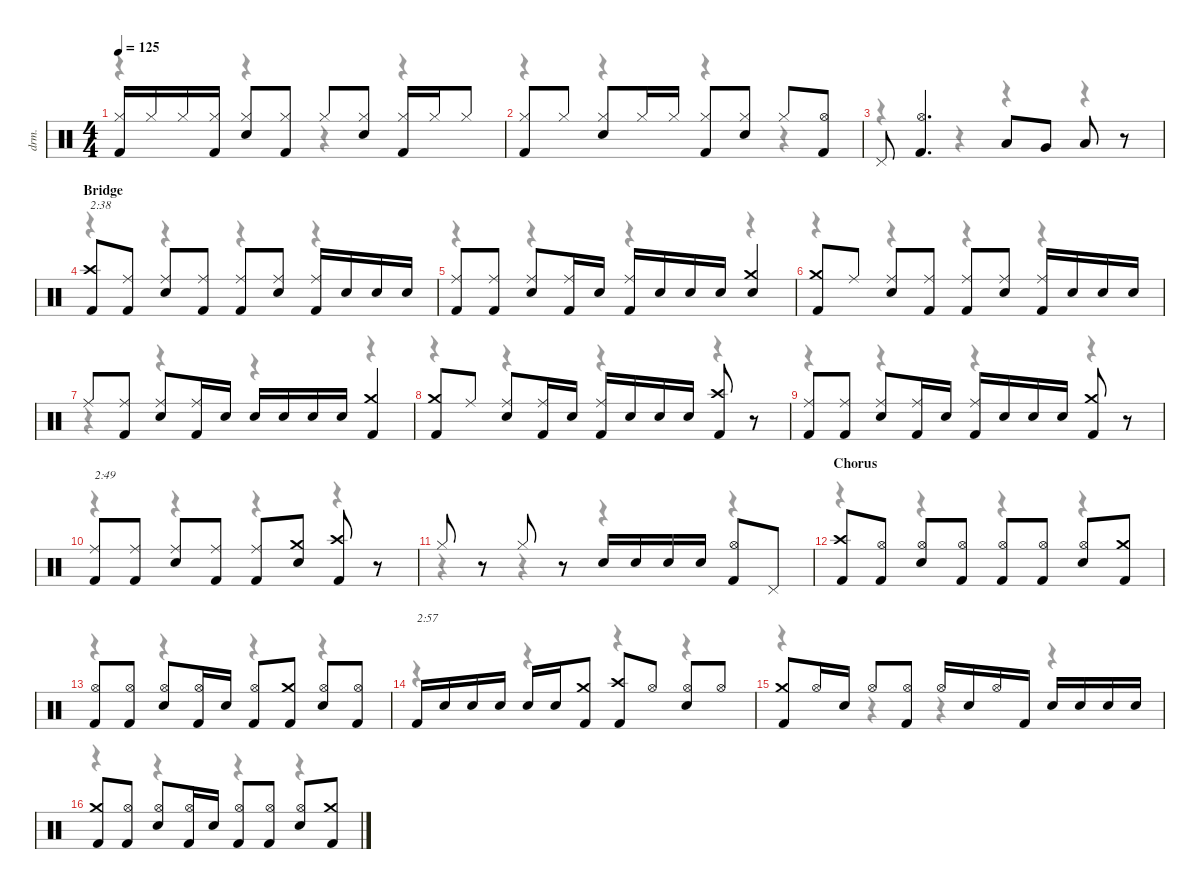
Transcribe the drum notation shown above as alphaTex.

\defaultSystemsLayout 4
\hideDynamics
\bracketExtendMode nobrackets
\otherSystemsTrackNameOrientation horizontal
\track ("Drums" "drm.") {instrument percussion}
\staff {score}
\articulation defaults
\voice
\ts (4 4)
\tempo 125
\clef neutral
\ks c
("Hi-Hat (closed)" "Kick (hit) 2").16{dy f beam Up} "Hi-Hat (closed)".16{beam Up} "Hi-Hat (closed)".16{beam Up} ("Hi-Hat (closed)" "Kick (hit) 2").16{beam Up} ("Hi-Hat (closed)" "Snare (hit) 2").8{beam Up} ("Hi-Hat (closed)" "Kick (hit) 2").8{beam Up} "Hi-Hat (closed)".8{beam Up} ("Hi-Hat (closed)" "Snare (hit) 2").8{beam Up} ("Hi-Hat (closed)" "Kick (hit) 2").16{beam Up} "Hi-Hat (closed)".16{beam Up} "Hi-Hat (closed)".8{beam Up} |
("Hi-Hat (closed)" "Kick (hit) 2").8{beam Up} "Hi-Hat (closed)".8{beam Up} ("Hi-Hat (closed)" "Snare (hit) 2").8{beam Up} "Hi-Hat (closed)".16{beam Up} "Hi-Hat (closed)".16{beam Up} ("Hi-Hat (closed)" "Kick (hit) 2").8{beam Up} ("Hi-Hat (closed)" "Snare (hit) 2").8{beam Up} "Hi-Hat (closed)".8{beam Up} ("Hi-Hat (open)" "Kick (hit) 2").8{beam Up} |
"Pedal Hi-Hat (hit)".8{beam Up} ("Hi-Hat (open)" "Kick (hit) 2").4{d beam Up} "Low Tom (hit)".8{beam Up} "Very Low Tom (hit)".8{beam Up} "Low Floor Tom (hit)".8{beam Up} r.8{beam Up} |
\section ("" "Bridge")
("Crash high (hit)" "Kick (hit) 2").8{txt "2:38" beam Up} ("Ride (middle)" "Kick (hit) 2").8{beam Up} ("Ride (middle)" "Snare (hit) 2").8{beam Up} ("Ride (middle)" "Kick (hit) 2").8{beam Up} ("Ride (middle)" "Kick (hit) 2").8{beam Up} ("Ride (middle)" "Snare (hit) 2").8{beam Up} ("Ride (middle)" "Kick (hit) 2").16{beam Up} "Snare (hit) 2".16{beam Up} "Snare (hit) 2".16{beam Up} "Snare (hit) 2".16{beam Up} |
("Ride (middle)" "Kick (hit) 2").8{beam Up} ("Ride (middle)" "Kick (hit) 2").8{beam Up} ("Ride (middle)" "Snare (hit) 2").8{beam Up} ("Ride (middle)" "Kick (hit) 2").16{beam Up} "Snare (hit) 2".16{beam Up} ("Ride (middle)" "Kick (hit) 2").16{beam Up} "Snare (hit) 2".16{beam Up} "Snare (hit) 2".16{beam Up} "Snare (hit) 2".16{beam Up} ("Crash medium (hit)" "Snare (hit) 2").4{beam Up} |
("Crash medium (hit)" "Kick (hit) 2").8{beam Up} "Ride (middle)".8{beam Up} ("Ride (middle)" "Snare (hit) 2").8{beam Up} ("Ride (middle)" "Kick (hit) 2").8{beam Up} ("Ride (middle)" "Kick (hit) 2").8{beam Up} ("Ride (middle)" "Snare (hit) 2").8{beam Up} ("Ride (middle)" "Kick (hit) 2").16{beam Up} "Snare (hit) 2".16{beam Up} "Snare (hit) 2".16{beam Up} "Snare (hit) 2".16{beam Up} |
"Ride (middle)".8{beam Up} ("Ride (middle)" "Kick (hit) 2").8{beam Up} ("Ride (middle)" "Snare (hit) 2").8{beam Up} ("Ride (middle)" "Kick (hit) 2").16{beam Up} "Snare (hit) 2".16{beam Up} "Snare (hit) 2".16{beam Up} "Snare (hit) 2".16{beam Up} "Snare (hit) 2".16{beam Up} "Snare (hit) 2".16{beam Up} ("Crash medium (hit)" "Kick (hit) 2").4{beam Up} |
("Crash medium (hit)" "Kick (hit) 2").8{beam Up} "Ride (middle)".8{beam Up} ("Ride (middle)" "Snare (hit) 2").8{beam Up} ("Ride (middle)" "Kick (hit) 2").16{beam Up} "Snare (hit) 2".16{beam Up} ("Ride (middle)" "Kick (hit) 2").16{beam Up} "Snare (hit) 2".16{beam Up} "Snare (hit) 2".16{beam Up} "Snare (hit) 2".16{beam Up} ("Crash high (hit)" "Kick (hit) 2").8{beam Up} r.8{beam Up} |
("Ride (middle)" "Kick (hit) 2").8{beam Up} ("Ride (middle)" "Kick (hit) 2").8{beam Up} ("Ride (middle)" "Snare (hit) 2").8{beam Up} ("Ride (middle)" "Kick (hit) 2").16{beam Up} "Snare (hit) 2".16{beam Up} ("Ride (middle)" "Kick (hit) 2").16{beam Up} "Snare (hit) 2".16{beam Up} "Snare (hit) 2".16{beam Up} "Snare (hit) 2".16{beam Up} ("Crash medium (hit)" "Kick (hit) 2").8{beam Up} r.8{beam Up} |
("Ride (middle)" "Kick (hit) 2").8{txt "2:49" beam Up} ("Ride (middle)" "Kick (hit) 2").8{beam Up} ("Ride (middle)" "Snare (hit) 2").8{beam Up} ("Ride (middle)" "Kick (hit) 2").8{beam Up} ("Ride (middle)" "Kick (hit) 2").8{beam Up} ("Crash medium (hit)" "Snare (hit) 2").8{beam Up} ("Crash high (hit)" "Kick (hit) 2").8{beam Up} r.8{beam Up} |
"Hi-Hat (closed)".8{beam Up} r.8{beam Up} "Hi-Hat (closed)".8{beam Up} r.8{beam Up} "Snare (hit) 2".16{beam Up} "Snare (hit) 2".16{beam Up} "Snare (hit) 2".16{beam Up} "Snare (hit) 2".16{beam Up} ("Hi-Hat (open)" "Kick (hit) 2").8{beam Up} "Pedal Hi-Hat (hit)".8{beam Up} |
\section ("" "Chorus")
("Crash high (hit)" "Kick (hit) 2").8{beam Up} ("Hi-Hat (open)" "Kick (hit) 2").8{beam Up} ("Hi-Hat (open)" "Snare (hit) 2").8{beam Up} ("Hi-Hat (open)" "Kick (hit) 2").8{beam Up} ("Hi-Hat (open)" "Kick (hit) 2").8{beam Up} ("Hi-Hat (open)" "Kick (hit) 2").8{beam Up} ("Hi-Hat (open)" "Snare (hit) 2").8{beam Up} ("Crash medium (hit)" "Kick (hit) 2").8{beam Up} |
("Hi-Hat (open)" "Kick (hit) 2").8{beam Up} ("Hi-Hat (open)" "Kick (hit) 2").8{beam Up} ("Hi-Hat (open)" "Snare (hit) 2").8{beam Up} ("Hi-Hat (open)" "Kick (hit) 2").16{beam Up} "Snare (hit) 2".16{beam Up} ("Hi-Hat (open)" "Kick (hit) 2").8{beam Up} ("Crash medium (hit)" "Kick (hit) 2").8{beam Up} ("Hi-Hat (open)" "Snare (hit) 2").8{beam Up} ("Hi-Hat (open)" "Kick (hit) 2").8{beam Up} |
"Kick (hit) 2".16{txt "2:57" beam Up} "Snare (hit) 2".16{beam Up} "Snare (hit) 2".16{beam Up} "Snare (hit) 2".16{beam Up} "Snare (hit) 2".16{beam Up} "Snare (hit) 2".16{beam Up} ("Crash medium (hit)" "Kick (hit) 2").8{beam Up} ("Crash high (hit)" "Kick (hit) 2").8{beam Up} "Hi-Hat (open)".8{beam Up} ("Hi-Hat (open)" "Snare (hit) 2").8{beam Up} "Hi-Hat (open)".8{beam Up} |
("Crash medium (hit)" "Kick (hit) 2").8{beam Up} "Hi-Hat (open)".16{beam Up} "Snare (hit) 2".16{beam Up} "Hi-Hat (open)".8{beam Up} ("Hi-Hat (open)" "Kick (hit) 2").8{beam Up} "Hi-Hat (open)".16{beam Up} "Snare (hit) 2".16{beam Up} "Hi-Hat (open)".16{beam Up} "Kick (hit) 2".16{beam Up} "Snare (hit) 2".16{beam Up} "Snare (hit) 2".16{beam Up} "Snare (hit) 2".16{beam Up} "Snare (hit) 2".16{beam Up} |
("Crash medium (hit)" "Kick (hit) 2").8{beam Up} ("Hi-Hat (open)" "Kick (hit) 2").8{beam Up} ("Hi-Hat (open)" "Snare (hit) 2").8{beam Up} ("Hi-Hat (open)" "Kick (hit) 2").16{beam Up} "Snare (hit) 2".16{beam Up} ("Hi-Hat (open)" "Kick (hit) 2").8{beam Up} ("Hi-Hat (open)" "Kick (hit) 2").8{beam Up} ("Hi-Hat (open)" "Snare (hit) 2").8{beam Up} ("Crash medium (hit)" "Kick (hit) 2").8{beam Up}
\voice
\clef neutral
\ottava regular
\simile none
\ks c
r.4{dy mf beam Down} r.4{beam Down} r.4{beam Down} r.4{beam Down} |
r.4{beam Down} r.4{beam Down} r.4{beam Down} r.4{beam Down} |
r.4{beam Down} r.4{beam Down} r.4{beam Down} r.4{beam Down} |
r.4{beam Down} r.4{beam Down} r.4{beam Down} r.4{beam Down} |
r.4{beam Down} r.4{beam Down} r.4{beam Down} r.4{beam Down} |
r.4{beam Down} r.4{beam Down} r.4{beam Down} r.4{beam Down} |
r.4{beam Down} r.4{beam Down} r.4{beam Down} r.4{beam Down} |
r.4{beam Down} r.4{beam Down} r.4{beam Down} r.4{beam Down} |
r.4{beam Down} r.4{beam Down} r.4{beam Down} r.4{beam Down} |
r.4{beam Down} r.4{beam Down} r.4{beam Down} r.4{beam Down} |
r.4{beam Down} r.4{beam Down} r.4{beam Down} r.4{beam Down} |
r.4{beam Down} r.4{beam Down} r.4{beam Down} r.4{beam Down} |
r.4{beam Down} r.4{beam Down} r.4{beam Down} r.4{beam Down} |
r.4{beam Down} r.4{beam Down} r.4{beam Down} r.4{beam Down} |
r.4{beam Down} r.4{beam Down} r.4{beam Down} r.4{beam Down} |
r.4{beam Down} r.4{beam Down} r.4{beam Down} r.4{beam Down}
